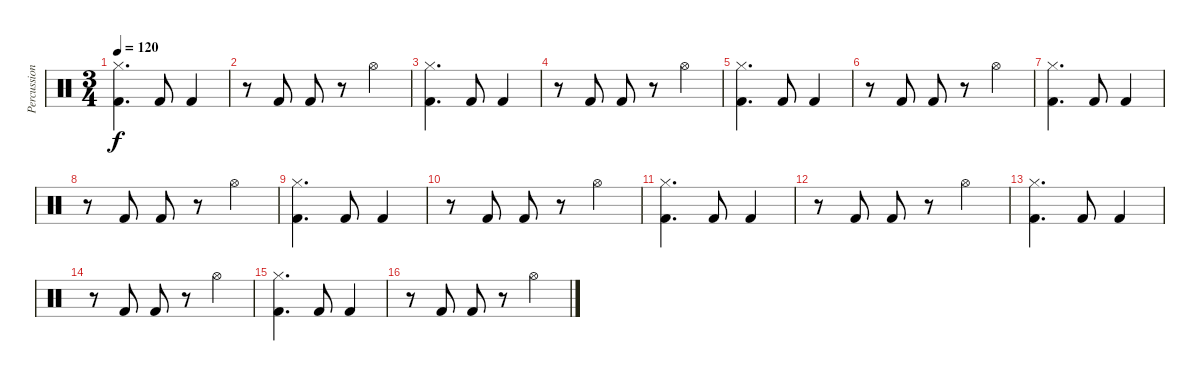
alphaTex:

\track ("Percussion" "Percussion") {instrument percussion}
\staff {score}
\articulation defaults
\ts (3 4)
\tempo 120
\clef neutral
\ks c
("Kick (hit) 2" "Hi-Hat (closed)").4{d dy f} "Kick (hit) 2".8 "Kick (hit) 2".4 |
r.8 "Kick (hit) 2".8 "Kick (hit) 2".8 r.8 "Hi-Hat (open)".4 |
("Kick (hit) 2" "Hi-Hat (closed)").4{d} "Kick (hit) 2".8 "Kick (hit) 2".4 |
r.8 "Kick (hit) 2".8 "Kick (hit) 2".8 r.8 "Hi-Hat (open)".4 |
("Kick (hit) 2" "Hi-Hat (closed)").4{d} "Kick (hit) 2".8 "Kick (hit) 2".4 |
r.8 "Kick (hit) 2".8 "Kick (hit) 2".8 r.8 "Hi-Hat (open)".4 |
("Kick (hit) 2" "Hi-Hat (closed)").4{d} "Kick (hit) 2".8 "Kick (hit) 2".4 |
r.8 "Kick (hit) 2".8 "Kick (hit) 2".8 r.8 "Hi-Hat (open)".4 |
("Kick (hit) 2" "Hi-Hat (closed)").4{d} "Kick (hit) 2".8 "Kick (hit) 2".4 |
r.8 "Kick (hit) 2".8 "Kick (hit) 2".8 r.8 "Hi-Hat (open)".4 |
("Kick (hit) 2" "Hi-Hat (closed)").4{d} "Kick (hit) 2".8 "Kick (hit) 2".4 |
r.8 "Kick (hit) 2".8 "Kick (hit) 2".8 r.8 "Hi-Hat (open)".4 |
("Kick (hit) 2" "Hi-Hat (closed)").4{d} "Kick (hit) 2".8 "Kick (hit) 2".4 |
r.8 "Kick (hit) 2".8 "Kick (hit) 2".8 r.8 "Hi-Hat (open)".4 |
("Kick (hit) 2" "Hi-Hat (closed)").4{d} "Kick (hit) 2".8 "Kick (hit) 2".4 |
r.8 "Kick (hit) 2".8 "Kick (hit) 2".8 r.8 "Hi-Hat (open)".4
